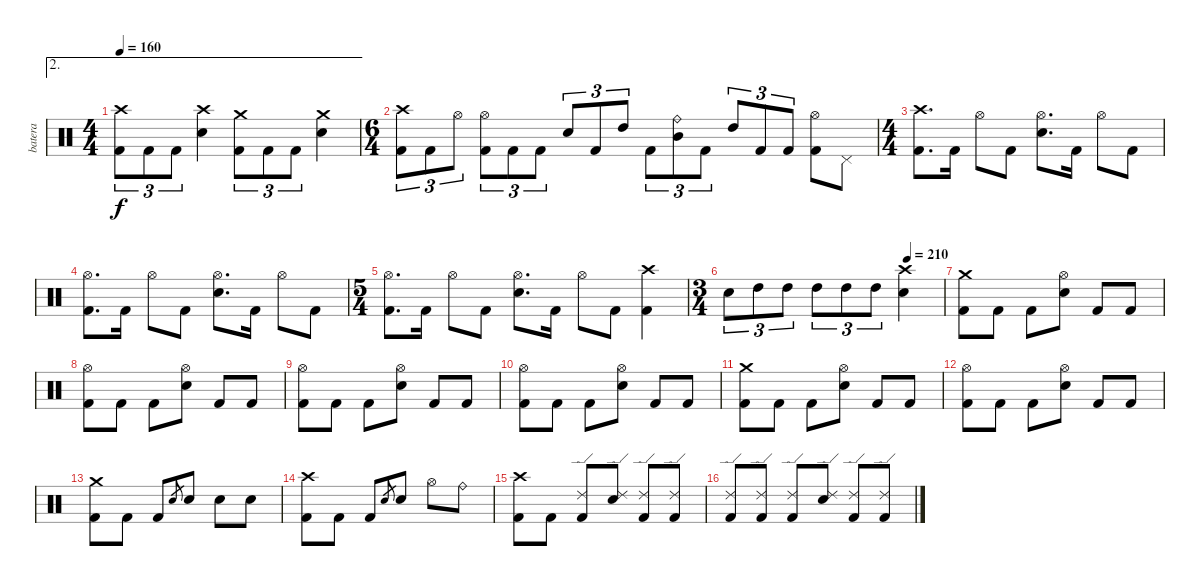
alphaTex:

\track ("batera" "batera") {instrument percussion}
\staff {score}
\articulation defaults
\ae 2
\ts (4 4)
\tempo 160
\clef neutral
\ks c
("Crash high (hit)" "Kick (hit) 2").8{tu (3 2) dy f} "Kick (hit) 2".8{tu (3 2)} "Kick (hit) 2".8{tu (3 2)} ("Crash high (hit)" "Electric Snare (hit)").4 ("Crash medium (hit)" "Kick (hit) 2").8{tu (3 2)} "Kick (hit) 2".8{tu (3 2)} "Kick (hit) 2".8{tu (3 2)} ("Crash medium (hit)" "Electric Snare (hit)").4 |
\ts (6 4)
("Crash high (hit)" "Kick (hit) 2").8{tu (3 2)} "Kick (hit) 2".8{tu (3 2)} "Hi-Hat (open)".8{tu (3 2)} ("Hi-Hat (open)" "Kick (hit) 2").8{tu (3 2)} "Kick (hit) 2".8{tu (3 2)} "Kick (hit) 2".8{tu (3 2)} "Electric Snare (hit)".8{tu (3 2)} "Kick (hit) 2".8{tu (3 2)} "High Tom (hit)".8{tu (3 2)} "Kick (hit) 2".8{tu (3 2)} ("Ride (bell)" "Mid Tom (hit)").8{tu (3 2)} "Kick (hit) 2".8{tu (3 2)} "High Tom (hit)".8{tu (3 2)} "Kick (hit) 2".8{tu (3 2)} "Kick (hit) 2".8{tu (3 2)} ("Hi-Hat (open)" "Kick (hit) 2").8 "Pedal Hi-Hat (hit)".8 |
\ts (4 4)
("Crash high (hit)" "Kick (hit) 2").8{d} "Kick (hit) 2".16 "Hi-Hat (open)".8 "Kick (hit) 2".8 ("Hi-Hat (open)" "Electric Snare (hit)").8{d} "Kick (hit) 2".16 "Hi-Hat (open)".8 "Kick (hit) 2".8 |
("Hi-Hat (open)" "Kick (hit) 2").8{d} "Kick (hit) 2".16 "Hi-Hat (open)".8 "Kick (hit) 2".8 ("Hi-Hat (open)" "Electric Snare (hit)").8{d} "Kick (hit) 2".16 "Hi-Hat (open)".8 "Kick (hit) 2".8 |
\ts (5 4)
("Hi-Hat (open)" "Kick (hit) 2").8{d} "Kick (hit) 2".16 "Hi-Hat (open)".8 "Kick (hit) 2".8 ("Hi-Hat (open)" "Electric Snare (hit)").8{d} "Kick (hit) 2".16 "Hi-Hat (open)".8 "Kick (hit) 2".8 ("Crash high (hit)" "Kick (hit) 2").4 |
\ts (3 4)
\tempo (210 0.8333333333333334)
"Electric Snare (hit)".8{tu (3 2)} "High Tom (hit)".8{tu (3 2)} "High Tom (hit)".8{tu (3 2)} "High Tom (hit)".8{tu (3 2)} "High Tom (hit)".8{tu (3 2)} "High Tom (hit)".8{tu (3 2)} ("Crash high (hit)" "Electric Snare (hit)").4 |
("Crash medium (hit)" "Kick (hit) 2").8 "Kick (hit) 2".8 "Kick (hit) 2".8 ("Hi-Hat (open)" "Electric Snare (hit)").8 "Kick (hit) 2".8 "Kick (hit) 2".8 |
("Hi-Hat (open)" "Kick (hit) 2").8 "Kick (hit) 2".8 "Kick (hit) 2".8 ("Hi-Hat (open)" "Electric Snare (hit)").8 "Kick (hit) 2".8 "Kick (hit) 2".8 |
("Hi-Hat (open)" "Kick (hit) 2").8 "Kick (hit) 2".8 "Kick (hit) 2".8 ("Hi-Hat (open)" "Electric Snare (hit)").8 "Kick (hit) 2".8 "Kick (hit) 2".8 |
("Hi-Hat (open)" "Kick (hit) 2").8 "Kick (hit) 2".8 "Kick (hit) 2".8 ("Hi-Hat (open)" "Electric Snare (hit)").8 "Kick (hit) 2".8 "Kick (hit) 2".8 |
("Crash medium (hit)" "Kick (hit) 2").8 "Kick (hit) 2".8 "Kick (hit) 2".8 ("Hi-Hat (open)" "Electric Snare (hit)").8 "Kick (hit) 2".8 "Kick (hit) 2".8 |
("Hi-Hat (open)" "Kick (hit) 2").8 "Kick (hit) 2".8 "Kick (hit) 2".8 ("Hi-Hat (open)" "Electric Snare (hit)").8 "Kick (hit) 2".8 "Kick (hit) 2".8 |
("Crash medium (hit)" "Kick (hit) 2").8 "Kick (hit) 2".8 "Kick (hit) 2".8 "Electric Snare (hit)".8{gr} "Electric Snare (hit)".8 "Electric Snare (hit)".8 "Electric Snare (hit)".8 |
("Crash high (hit)" "Kick (hit) 2").8 "Kick (hit) 2".8 "Kick (hit) 2".8 "Electric Snare (hit)".8{gr} "Electric Snare (hit)".8 "Hi-Hat (open)".8 "Ride (bell)".8 |
("Crash high (hit)" "Kick (hit) 2").8 "Kick (hit) 2".8 ("Ride (edge) 2" "Kick (hit) 2").8 ("Ride (edge) 2" "Electric Snare (hit)").8 ("Ride (edge) 2" "Kick (hit) 2").8 ("Ride (edge) 2" "Kick (hit) 2").8 |
("Ride (edge) 2" "Kick (hit) 2").8 ("Ride (edge) 2" "Kick (hit) 2").8 ("Ride (edge) 2" "Kick (hit) 2").8 ("Ride (edge) 2" "Electric Snare (hit)").8 ("Ride (edge) 2" "Kick (hit) 2").8 ("Ride (edge) 2" "Kick (hit) 2").8
